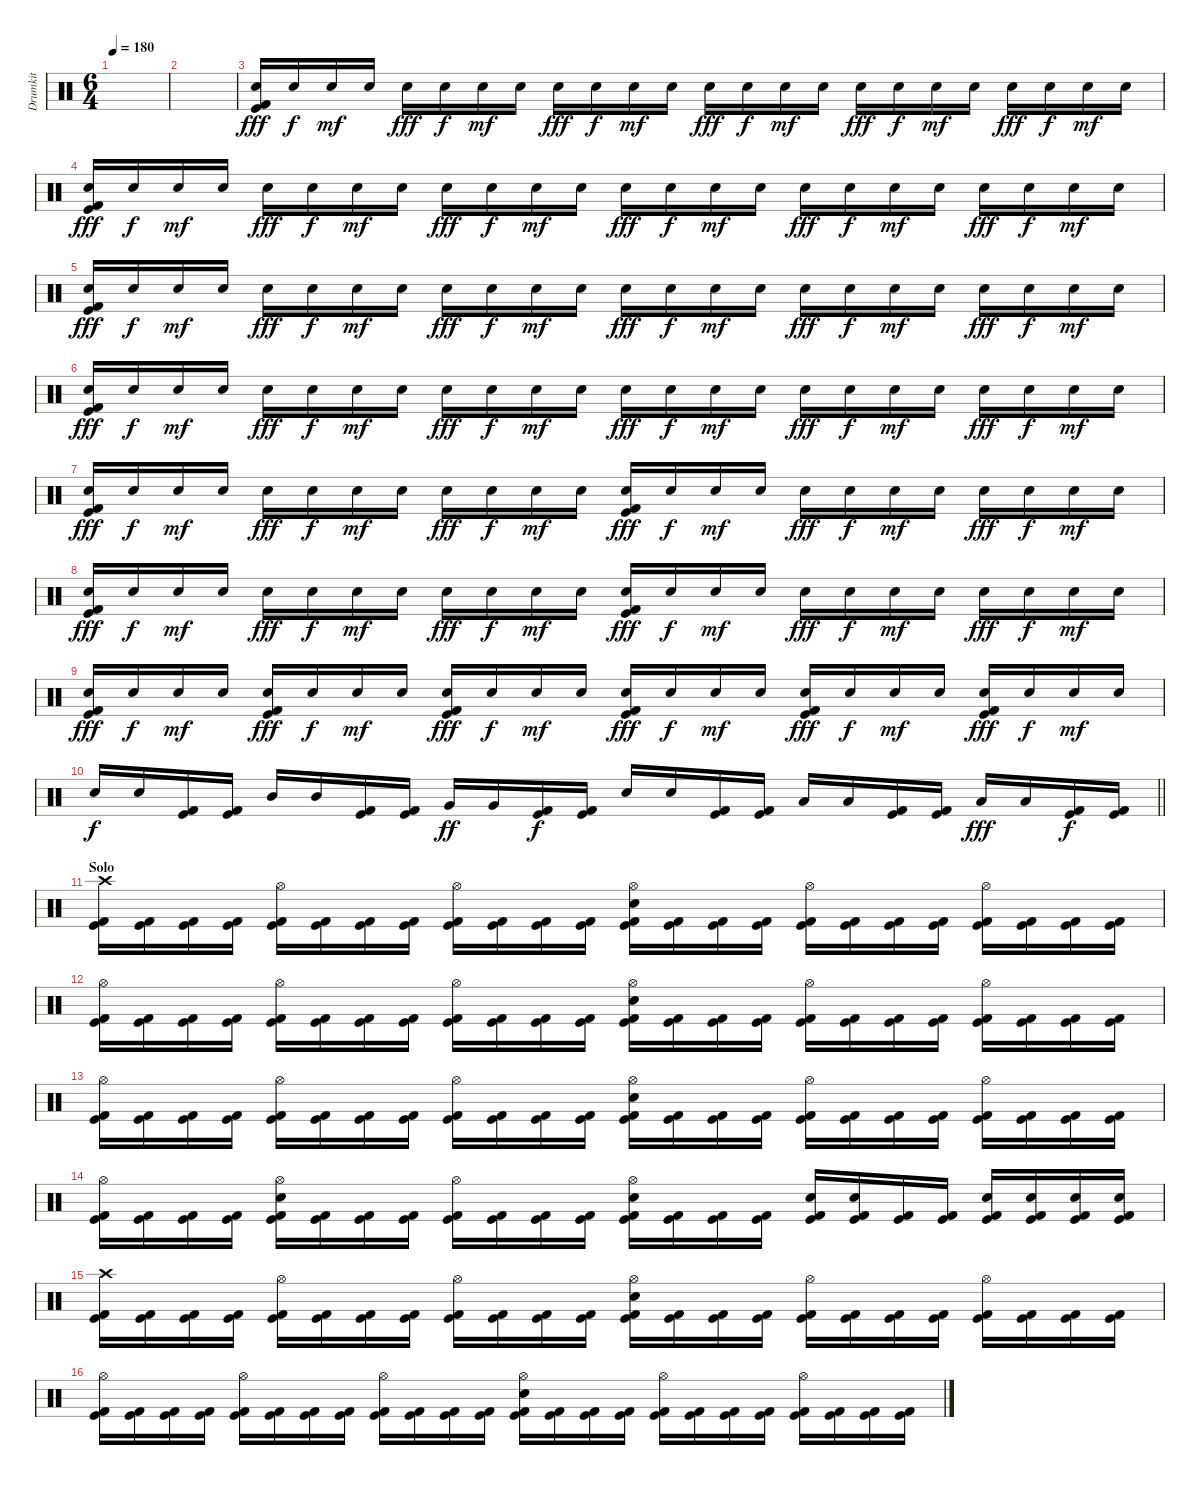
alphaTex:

\track ("Drumkit" "Drumkit") {instrument percussion}
\staff {score}
\articulation defaults
\ts (6 4)
\tempo 180
\clef neutral
\ks c
|
|
("Electric Snare (hit)" "Kick (hit)" "Kick (hit) 2").16{dy fff volume 7} "Electric Snare (hit)".16{dy f} "Electric Snare (hit)".16{dy mf} "Electric Snare (hit)".16 "Electric Snare (hit)".16{dy fff} "Electric Snare (hit)".16{dy f} "Electric Snare (hit)".16{dy mf} "Electric Snare (hit)".16 "Electric Snare (hit)".16{dy fff} "Electric Snare (hit)".16{dy f} "Electric Snare (hit)".16{dy mf} "Electric Snare (hit)".16 "Electric Snare (hit)".16{dy fff} "Electric Snare (hit)".16{dy f} "Electric Snare (hit)".16{dy mf} "Electric Snare (hit)".16 "Electric Snare (hit)".16{dy fff} "Electric Snare (hit)".16{dy f} "Electric Snare (hit)".16{dy mf} "Electric Snare (hit)".16 "Electric Snare (hit)".16{dy fff} "Electric Snare (hit)".16{dy f} "Electric Snare (hit)".16{dy mf} "Electric Snare (hit)".16 |
("Electric Snare (hit)" "Kick (hit)" "Kick (hit) 2").16{dy fff} "Electric Snare (hit)".16{dy f} "Electric Snare (hit)".16{dy mf} "Electric Snare (hit)".16 "Electric Snare (hit)".16{dy fff} "Electric Snare (hit)".16{dy f} "Electric Snare (hit)".16{dy mf} "Electric Snare (hit)".16 "Electric Snare (hit)".16{dy fff} "Electric Snare (hit)".16{dy f} "Electric Snare (hit)".16{dy mf} "Electric Snare (hit)".16 "Electric Snare (hit)".16{dy fff} "Electric Snare (hit)".16{dy f} "Electric Snare (hit)".16{dy mf} "Electric Snare (hit)".16 "Electric Snare (hit)".16{dy fff} "Electric Snare (hit)".16{dy f} "Electric Snare (hit)".16{dy mf} "Electric Snare (hit)".16 "Electric Snare (hit)".16{dy fff} "Electric Snare (hit)".16{dy f} "Electric Snare (hit)".16{dy mf} "Electric Snare (hit)".16 |
("Electric Snare (hit)" "Kick (hit)" "Kick (hit) 2").16{dy fff} "Electric Snare (hit)".16{dy f} "Electric Snare (hit)".16{dy mf} "Electric Snare (hit)".16 "Electric Snare (hit)".16{dy fff} "Electric Snare (hit)".16{dy f} "Electric Snare (hit)".16{dy mf} "Electric Snare (hit)".16 "Electric Snare (hit)".16{dy fff} "Electric Snare (hit)".16{dy f} "Electric Snare (hit)".16{dy mf} "Electric Snare (hit)".16 "Electric Snare (hit)".16{dy fff} "Electric Snare (hit)".16{dy f} "Electric Snare (hit)".16{dy mf} "Electric Snare (hit)".16 "Electric Snare (hit)".16{dy fff} "Electric Snare (hit)".16{dy f} "Electric Snare (hit)".16{dy mf} "Electric Snare (hit)".16 "Electric Snare (hit)".16{dy fff} "Electric Snare (hit)".16{dy f} "Electric Snare (hit)".16{dy mf} "Electric Snare (hit)".16 |
("Electric Snare (hit)" "Kick (hit)" "Kick (hit) 2").16{dy fff volume 14} "Electric Snare (hit)".16{dy f} "Electric Snare (hit)".16{dy mf} "Electric Snare (hit)".16 "Electric Snare (hit)".16{dy fff} "Electric Snare (hit)".16{dy f} "Electric Snare (hit)".16{dy mf} "Electric Snare (hit)".16 "Electric Snare (hit)".16{dy fff} "Electric Snare (hit)".16{dy f} "Electric Snare (hit)".16{dy mf} "Electric Snare (hit)".16 "Electric Snare (hit)".16{dy fff} "Electric Snare (hit)".16{dy f} "Electric Snare (hit)".16{dy mf} "Electric Snare (hit)".16 "Electric Snare (hit)".16{dy fff} "Electric Snare (hit)".16{dy f} "Electric Snare (hit)".16{dy mf} "Electric Snare (hit)".16 "Electric Snare (hit)".16{dy fff} "Electric Snare (hit)".16{dy f} "Electric Snare (hit)".16{dy mf} "Electric Snare (hit)".16 |
("Electric Snare (hit)" "Kick (hit)" "Kick (hit) 2").16{dy fff} "Electric Snare (hit)".16{dy f} "Electric Snare (hit)".16{dy mf} "Electric Snare (hit)".16 "Electric Snare (hit)".16{dy fff} "Electric Snare (hit)".16{dy f} "Electric Snare (hit)".16{dy mf} "Electric Snare (hit)".16 "Electric Snare (hit)".16{dy fff} "Electric Snare (hit)".16{dy f} "Electric Snare (hit)".16{dy mf} "Electric Snare (hit)".16 ("Electric Snare (hit)" "Kick (hit)" "Kick (hit) 2").16{dy fff} "Electric Snare (hit)".16{dy f} "Electric Snare (hit)".16{dy mf} "Electric Snare (hit)".16 "Electric Snare (hit)".16{dy fff} "Electric Snare (hit)".16{dy f} "Electric Snare (hit)".16{dy mf} "Electric Snare (hit)".16 "Electric Snare (hit)".16{dy fff} "Electric Snare (hit)".16{dy f} "Electric Snare (hit)".16{dy mf} "Electric Snare (hit)".16 |
("Electric Snare (hit)" "Kick (hit)" "Kick (hit) 2").16{dy fff} "Electric Snare (hit)".16{dy f} "Electric Snare (hit)".16{dy mf} "Electric Snare (hit)".16 "Electric Snare (hit)".16{dy fff} "Electric Snare (hit)".16{dy f} "Electric Snare (hit)".16{dy mf} "Electric Snare (hit)".16 "Electric Snare (hit)".16{dy fff} "Electric Snare (hit)".16{dy f} "Electric Snare (hit)".16{dy mf} "Electric Snare (hit)".16 ("Electric Snare (hit)" "Kick (hit)" "Kick (hit) 2").16{dy fff} "Electric Snare (hit)".16{dy f} "Electric Snare (hit)".16{dy mf} "Electric Snare (hit)".16 "Electric Snare (hit)".16{dy fff} "Electric Snare (hit)".16{dy f} "Electric Snare (hit)".16{dy mf} "Electric Snare (hit)".16 "Electric Snare (hit)".16{dy fff} "Electric Snare (hit)".16{dy f} "Electric Snare (hit)".16{dy mf} "Electric Snare (hit)".16 |
("Electric Snare (hit)" "Kick (hit)" "Kick (hit) 2").16{dy fff} "Electric Snare (hit)".16{dy f} "Electric Snare (hit)".16{dy mf} "Electric Snare (hit)".16 ("Electric Snare (hit)" "Kick (hit)" "Kick (hit) 2").16{dy fff} "Electric Snare (hit)".16{dy f} "Electric Snare (hit)".16{dy mf} "Electric Snare (hit)".16 ("Electric Snare (hit)" "Kick (hit)" "Kick (hit) 2").16{dy fff} "Electric Snare (hit)".16{dy f} "Electric Snare (hit)".16{dy mf} "Electric Snare (hit)".16 ("Electric Snare (hit)" "Kick (hit)" "Kick (hit) 2").16{dy fff} "Electric Snare (hit)".16{dy f} "Electric Snare (hit)".16{dy mf} "Electric Snare (hit)".16 ("Electric Snare (hit)" "Kick (hit)" "Kick (hit) 2").16{dy fff} "Electric Snare (hit)".16{dy f} "Electric Snare (hit)".16{dy mf} "Electric Snare (hit)".16 ("Electric Snare (hit)" "Kick (hit)" "Kick (hit) 2").16{dy fff} "Electric Snare (hit)".16{dy f} "Electric Snare (hit)".16{dy mf} "Electric Snare (hit)".16 |
\barLineRight lightlight "Electric Snare (hit)".16{dy f} "Electric Snare (hit)".16
("Kick (hit)" "Kick (hit) 2").16 ("Kick (hit)" "Kick (hit) 2").16 "Mid Tom (hit)".16 "Mid Tom (hit)".16 ("Kick (hit)" "Kick (hit) 2").16 ("Kick (hit)" "Kick (hit) 2").16 "Very Low Tom (hit)".16{dy ff} "Very Low Tom (hit)".16 ("Kick (hit)" "Kick (hit) 2").16{dy f} ("Kick (hit)" "Kick (hit) 2").16 "Electric Snare (hit)".16 "Electric Snare (hit)".16 ("Kick (hit)" "Kick (hit) 2").16 ("Kick (hit)" "Kick (hit) 2").16 "Low Tom (hit)".16 "Low Tom (hit)".16 ("Kick (hit)" "Kick (hit) 2").16 ("Kick (hit)" "Kick (hit) 2").16 "Low Floor Tom (hit)".16{dy fff} "Low Floor Tom (hit)".16 ("Kick (hit)" "Kick (hit) 2").16{dy f} ("Kick (hit)" "Kick (hit) 2").16 |
\section ("" "Solo")
("Crash high (hit)" "Kick (hit)" "Kick (hit) 2").16 ("Kick (hit)" "Kick (hit) 2").16 ("Kick (hit)" "Kick (hit) 2").16 ("Kick (hit)" "Kick (hit) 2").16 ("Hi-Hat (open)" "Kick (hit)" "Kick (hit) 2").16 ("Kick (hit)" "Kick (hit) 2").16 ("Kick (hit)" "Kick (hit) 2").16 ("Kick (hit)" "Kick (hit) 2").16 ("Hi-Hat (open)" "Kick (hit)" "Kick (hit) 2").16 ("Kick (hit)" "Kick (hit) 2").16 ("Kick (hit)" "Kick (hit) 2").16 ("Kick (hit)" "Kick (hit) 2").16 ("Hi-Hat (open)" "Electric Snare (hit)" "Kick (hit)" "Kick (hit) 2").16 ("Kick (hit)" "Kick (hit) 2").16 ("Kick (hit)" "Kick (hit) 2").16 ("Kick (hit)" "Kick (hit) 2").16 ("Hi-Hat (open)" "Kick (hit)" "Kick (hit) 2").16 ("Kick (hit)" "Kick (hit) 2").16 ("Kick (hit)" "Kick (hit) 2").16 ("Kick (hit)" "Kick (hit) 2").16 ("Hi-Hat (open)" "Kick (hit)" "Kick (hit) 2").16 ("Kick (hit)" "Kick (hit) 2").16 ("Kick (hit)" "Kick (hit) 2").16 ("Kick (hit)" "Kick (hit) 2").16 |
("Hi-Hat (open)" "Kick (hit)" "Kick (hit) 2").16 ("Kick (hit)" "Kick (hit) 2").16 ("Kick (hit)" "Kick (hit) 2").16 ("Kick (hit)" "Kick (hit) 2").16 ("Hi-Hat (open)" "Kick (hit)" "Kick (hit) 2").16 ("Kick (hit)" "Kick (hit) 2").16 ("Kick (hit)" "Kick (hit) 2").16 ("Kick (hit)" "Kick (hit) 2").16 ("Hi-Hat (open)" "Kick (hit)" "Kick (hit) 2").16 ("Kick (hit)" "Kick (hit) 2").16 ("Kick (hit)" "Kick (hit) 2").16 ("Kick (hit)" "Kick (hit) 2").16 ("Hi-Hat (open)" "Electric Snare (hit)" "Kick (hit)" "Kick (hit) 2").16 ("Kick (hit)" "Kick (hit) 2").16 ("Kick (hit)" "Kick (hit) 2").16 ("Kick (hit)" "Kick (hit) 2").16 ("Hi-Hat (open)" "Kick (hit)" "Kick (hit) 2").16 ("Kick (hit)" "Kick (hit) 2").16 ("Kick (hit)" "Kick (hit) 2").16 ("Kick (hit)" "Kick (hit) 2").16 ("Hi-Hat (open)" "Kick (hit)" "Kick (hit) 2").16 ("Kick (hit)" "Kick (hit) 2").16 ("Kick (hit)" "Kick (hit) 2").16 ("Kick (hit)" "Kick (hit) 2").16 |
("Hi-Hat (open)" "Kick (hit)" "Kick (hit) 2").16 ("Kick (hit)" "Kick (hit) 2").16 ("Kick (hit)" "Kick (hit) 2").16 ("Kick (hit)" "Kick (hit) 2").16 ("Hi-Hat (open)" "Kick (hit)" "Kick (hit) 2").16 ("Kick (hit)" "Kick (hit) 2").16 ("Kick (hit)" "Kick (hit) 2").16 ("Kick (hit)" "Kick (hit) 2").16 ("Hi-Hat (open)" "Kick (hit)" "Kick (hit) 2").16 ("Kick (hit)" "Kick (hit) 2").16 ("Kick (hit)" "Kick (hit) 2").16 ("Kick (hit)" "Kick (hit) 2").16 ("Hi-Hat (open)" "Electric Snare (hit)" "Kick (hit)" "Kick (hit) 2").16 ("Kick (hit)" "Kick (hit) 2").16 ("Kick (hit)" "Kick (hit) 2").16 ("Kick (hit)" "Kick (hit) 2").16 ("Hi-Hat (open)" "Kick (hit)" "Kick (hit) 2").16 ("Kick (hit)" "Kick (hit) 2").16 ("Kick (hit)" "Kick (hit) 2").16 ("Kick (hit)" "Kick (hit) 2").16 ("Hi-Hat (open)" "Kick (hit)" "Kick (hit) 2").16 ("Kick (hit)" "Kick (hit) 2").16 ("Kick (hit)" "Kick (hit) 2").16 ("Kick (hit)" "Kick (hit) 2").16 |
("Hi-Hat (open)" "Kick (hit)" "Kick (hit) 2").16 ("Kick (hit)" "Kick (hit) 2").16 ("Kick (hit)" "Kick (hit) 2").16 ("Kick (hit)" "Kick (hit) 2").16 ("Hi-Hat (open)" "Electric Snare (hit)" "Kick (hit)" "Kick (hit) 2").16 ("Kick (hit)" "Kick (hit) 2").16 ("Kick (hit)" "Kick (hit) 2").16 ("Kick (hit)" "Kick (hit) 2").16 ("Hi-Hat (open)" "Kick (hit)" "Kick (hit) 2").16 ("Kick (hit)" "Kick (hit) 2").16 ("Kick (hit)" "Kick (hit) 2").16 ("Kick (hit)" "Kick (hit) 2").16 ("Hi-Hat (open)" "Electric Snare (hit)" "Kick (hit)" "Kick (hit) 2").16 ("Kick (hit)" "Kick (hit) 2").16 ("Kick (hit)" "Kick (hit) 2").16 ("Kick (hit)" "Kick (hit) 2").16 ("Electric Snare (hit)" "Kick (hit)" "Kick (hit) 2").16 ("Electric Snare (hit)" "Kick (hit)" "Kick (hit) 2").16 ("Kick (hit)" "Kick (hit) 2").16 ("Kick (hit)" "Kick (hit) 2").16 ("Electric Snare (hit)" "Kick (hit)" "Kick (hit) 2").16 ("Electric Snare (hit)" "Kick (hit)" "Kick (hit) 2").16 ("Electric Snare (hit)" "Kick (hit)" "Kick (hit) 2").16 ("Electric Snare (hit)" "Kick (hit)" "Kick (hit) 2").16 |
("Crash high (hit)" "Kick (hit)" "Kick (hit) 2").16 ("Kick (hit)" "Kick (hit) 2").16 ("Kick (hit)" "Kick (hit) 2").16 ("Kick (hit)" "Kick (hit) 2").16 ("Hi-Hat (open)" "Kick (hit)" "Kick (hit) 2").16 ("Kick (hit)" "Kick (hit) 2").16 ("Kick (hit)" "Kick (hit) 2").16 ("Kick (hit)" "Kick (hit) 2").16 ("Hi-Hat (open)" "Kick (hit)" "Kick (hit) 2").16 ("Kick (hit)" "Kick (hit) 2").16 ("Kick (hit)" "Kick (hit) 2").16 ("Kick (hit)" "Kick (hit) 2").16 ("Hi-Hat (open)" "Electric Snare (hit)" "Kick (hit)" "Kick (hit) 2").16 ("Kick (hit)" "Kick (hit) 2").16 ("Kick (hit)" "Kick (hit) 2").16 ("Kick (hit)" "Kick (hit) 2").16 ("Hi-Hat (open)" "Kick (hit)" "Kick (hit) 2").16 ("Kick (hit)" "Kick (hit) 2").16 ("Kick (hit)" "Kick (hit) 2").16 ("Kick (hit)" "Kick (hit) 2").16 ("Hi-Hat (open)" "Kick (hit)" "Kick (hit) 2").16 ("Kick (hit)" "Kick (hit) 2").16 ("Kick (hit)" "Kick (hit) 2").16 ("Kick (hit)" "Kick (hit) 2").16 |
("Hi-Hat (open)" "Kick (hit)" "Kick (hit) 2").16 ("Kick (hit)" "Kick (hit) 2").16 ("Kick (hit)" "Kick (hit) 2").16 ("Kick (hit)" "Kick (hit) 2").16 ("Hi-Hat (open)" "Kick (hit)" "Kick (hit) 2").16 ("Kick (hit)" "Kick (hit) 2").16 ("Kick (hit)" "Kick (hit) 2").16 ("Kick (hit)" "Kick (hit) 2").16 ("Hi-Hat (open)" "Kick (hit)" "Kick (hit) 2").16 ("Kick (hit)" "Kick (hit) 2").16 ("Kick (hit)" "Kick (hit) 2").16 ("Kick (hit)" "Kick (hit) 2").16 ("Hi-Hat (open)" "Electric Snare (hit)" "Kick (hit)" "Kick (hit) 2").16 ("Kick (hit)" "Kick (hit) 2").16 ("Kick (hit)" "Kick (hit) 2").16 ("Kick (hit)" "Kick (hit) 2").16 ("Hi-Hat (open)" "Kick (hit)" "Kick (hit) 2").16 ("Kick (hit)" "Kick (hit) 2").16 ("Kick (hit)" "Kick (hit) 2").16 ("Kick (hit)" "Kick (hit) 2").16 ("Hi-Hat (open)" "Kick (hit)" "Kick (hit) 2").16 ("Kick (hit)" "Kick (hit) 2").16 ("Kick (hit)" "Kick (hit) 2").16 ("Kick (hit)" "Kick (hit) 2").16
